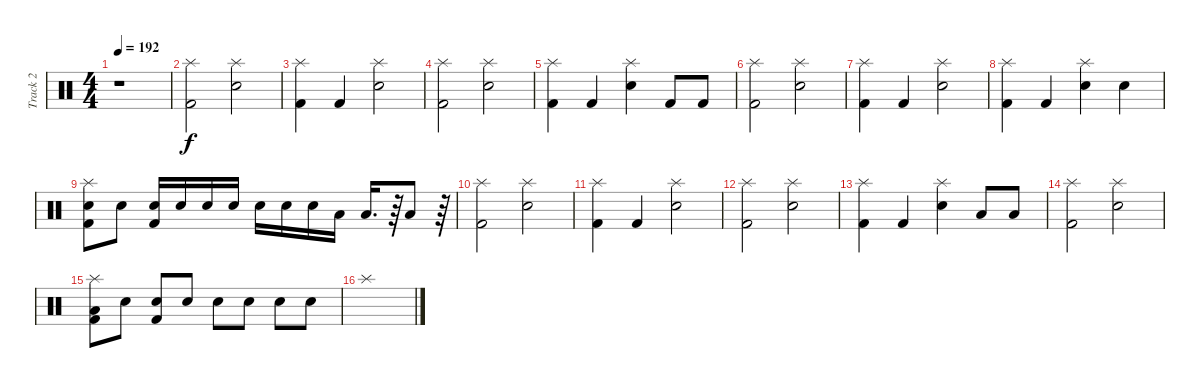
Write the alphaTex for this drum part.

\track ("Track 2" "Track 2") {instrument percussion}
\staff {score}
\articulation defaults
\ts (4 4)
\tempo 192
\clef neutral
\ks c
r.1{dy f} |
("Splash (hit)" "Kick (hit) 2").2 ("Splash (hit)" "Electric Snare (hit)").2 |
("Splash (hit)" "Kick (hit) 2").4 "Kick (hit) 2".4 ("Splash (hit)" "Electric Snare (hit)").2 |
("Splash (hit)" "Kick (hit) 2").2 ("Splash (hit)" "Electric Snare (hit)").2 |
("Splash (hit)" "Kick (hit) 2").4 "Kick (hit) 2".4 ("Splash (hit)" "Electric Snare (hit)").4 "Kick (hit) 2".8 "Kick (hit) 2".8 |
("Splash (hit)" "Kick (hit) 2").2 ("Splash (hit)" "Electric Snare (hit)").2 |
("Splash (hit)" "Kick (hit) 2").4 "Kick (hit) 2".4 ("Splash (hit)" "Electric Snare (hit)").2 |
("Splash (hit)" "Kick (hit) 2").4 "Kick (hit) 2".4 ("Splash (hit)" "Electric Snare (hit)").4 "Electric Snare (hit)".4 |
("Splash (hit)" "Electric Snare (hit)" "Kick (hit) 2").8 "Electric Snare (hit)".8 ("Electric Snare (hit)" "Kick (hit) 2").16 "Electric Snare (hit)".16 "Electric Snare (hit)".16 "Electric Snare (hit)".16 "Electric Snare (hit)".16 "Electric Snare (hit)".16 "Electric Snare (hit)".16 "Low Tom (hit)".16 "Low Tom (hit)".16{d} r.64 "Low Tom (hit)".8 r.64 |
("Splash (hit)" "Kick (hit) 2").2 ("Splash (hit)" "Electric Snare (hit)").2 |
("Splash (hit)" "Kick (hit) 2").4 "Kick (hit) 2".4 ("Splash (hit)" "Electric Snare (hit)").2 |
("Splash (hit)" "Kick (hit) 2").2 ("Splash (hit)" "Electric Snare (hit)").2 |
("Splash (hit)" "Kick (hit) 2").4 "Kick (hit) 2".4 ("Splash (hit)" "Electric Snare (hit)").4 "Low Tom (hit)".8 "Low Tom (hit)".8 |
("Splash (hit)" "Kick (hit) 2").2 ("Splash (hit)" "Electric Snare (hit)").2 |
("Splash (hit)" "Low Tom (hit)" "Kick (hit) 2").8 "Electric Snare (hit)".8 ("Electric Snare (hit)" "Kick (hit) 2").8 "Electric Snare (hit)".8 "Electric Snare (hit)".8 "Electric Snare (hit)".8 "Electric Snare (hit)".8 "Electric Snare (hit)".8 |
"Splash (hit)".1
